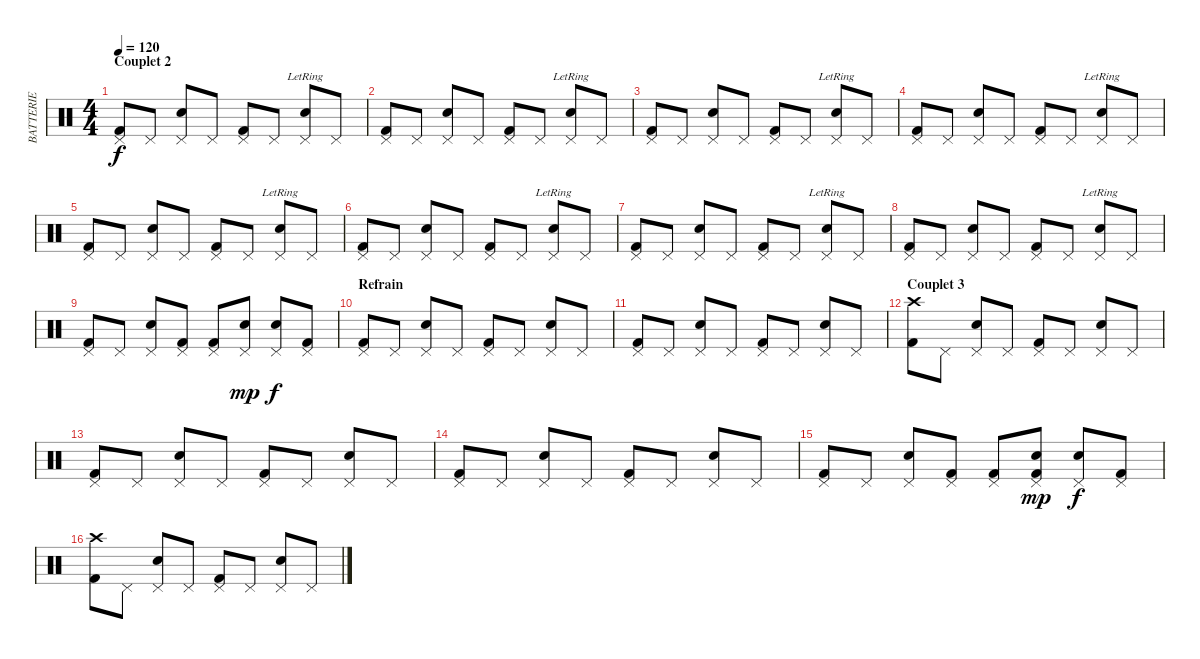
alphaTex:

\track ("BATTERIE" "BATTERIE") {instrument percussion}
\staff {score}
\articulation defaults
\ts (4 4)
\section ("" "Couplet 2")
\tempo 120
\clef neutral
\ks c
("Pedal Hi-Hat (hit)" "Kick (hit) 2").8{dy f} "Pedal Hi-Hat (hit)".8 ("Pedal Hi-Hat (hit)" "Snare (hit) 2").8 "Pedal Hi-Hat (hit)".8 ("Pedal Hi-Hat (hit)" "Kick (hit) 2").8 "Pedal Hi-Hat (hit)".8 ("Pedal Hi-Hat (hit)" "Snare (hit) 2"{lr}).8 "Pedal Hi-Hat (hit)".8 |
("Pedal Hi-Hat (hit)" "Kick (hit) 2").8 "Pedal Hi-Hat (hit)".8 ("Pedal Hi-Hat (hit)" "Snare (hit) 2").8 "Pedal Hi-Hat (hit)".8 ("Pedal Hi-Hat (hit)" "Kick (hit) 2").8 "Pedal Hi-Hat (hit)".8 ("Pedal Hi-Hat (hit)" "Snare (hit) 2"{lr}).8 "Pedal Hi-Hat (hit)".8 |
("Pedal Hi-Hat (hit)" "Kick (hit) 2").8 "Pedal Hi-Hat (hit)".8 ("Pedal Hi-Hat (hit)" "Snare (hit) 2").8 "Pedal Hi-Hat (hit)".8 ("Pedal Hi-Hat (hit)" "Kick (hit) 2").8 "Pedal Hi-Hat (hit)".8 ("Pedal Hi-Hat (hit)" "Snare (hit) 2"{lr}).8 "Pedal Hi-Hat (hit)".8 |
("Pedal Hi-Hat (hit)" "Kick (hit) 2").8 "Pedal Hi-Hat (hit)".8 ("Pedal Hi-Hat (hit)" "Snare (hit) 2").8 "Pedal Hi-Hat (hit)".8 ("Pedal Hi-Hat (hit)" "Kick (hit) 2").8 "Pedal Hi-Hat (hit)".8 ("Pedal Hi-Hat (hit)" "Snare (hit) 2"{lr}).8 "Pedal Hi-Hat (hit)".8 |
("Pedal Hi-Hat (hit)" "Kick (hit) 2").8 "Pedal Hi-Hat (hit)".8 ("Pedal Hi-Hat (hit)" "Snare (hit) 2").8 "Pedal Hi-Hat (hit)".8 ("Pedal Hi-Hat (hit)" "Kick (hit) 2").8 "Pedal Hi-Hat (hit)".8 ("Pedal Hi-Hat (hit)" "Snare (hit) 2"{lr}).8 "Pedal Hi-Hat (hit)".8 |
("Pedal Hi-Hat (hit)" "Kick (hit) 2").8 "Pedal Hi-Hat (hit)".8 ("Pedal Hi-Hat (hit)" "Snare (hit) 2").8 "Pedal Hi-Hat (hit)".8 ("Pedal Hi-Hat (hit)" "Kick (hit) 2").8 "Pedal Hi-Hat (hit)".8 ("Pedal Hi-Hat (hit)" "Snare (hit) 2"{lr}).8 "Pedal Hi-Hat (hit)".8 |
("Pedal Hi-Hat (hit)" "Kick (hit) 2").8 "Pedal Hi-Hat (hit)".8 ("Pedal Hi-Hat (hit)" "Snare (hit) 2").8 "Pedal Hi-Hat (hit)".8 ("Pedal Hi-Hat (hit)" "Kick (hit) 2").8 "Pedal Hi-Hat (hit)".8 ("Pedal Hi-Hat (hit)" "Snare (hit) 2"{lr}).8 "Pedal Hi-Hat (hit)".8 |
("Pedal Hi-Hat (hit)" "Kick (hit) 2").8 "Pedal Hi-Hat (hit)".8 ("Pedal Hi-Hat (hit)" "Snare (hit) 2").8 "Pedal Hi-Hat (hit)".8 ("Pedal Hi-Hat (hit)" "Kick (hit) 2").8 "Pedal Hi-Hat (hit)".8 ("Pedal Hi-Hat (hit)" "Snare (hit) 2"{lr}).8 "Pedal Hi-Hat (hit)".8 |
("Pedal Hi-Hat (hit)" "Kick (hit) 2").8 "Pedal Hi-Hat (hit)".8 ("Pedal Hi-Hat (hit)" "Snare (hit) 2").8 ("Pedal Hi-Hat (hit)" "Kick (hit) 2").8 ("Pedal Hi-Hat (hit)" "Kick (hit) 2").8 ("Pedal Hi-Hat (hit)" "Snare (hit) 2").8{dy mp} ("Pedal Hi-Hat (hit)" "Snare (hit) 2").8{dy f} ("Pedal Hi-Hat (hit)" "Kick (hit) 2").8 |
\section ("" "Refrain")
("Pedal Hi-Hat (hit)" "Kick (hit) 2").8 "Pedal Hi-Hat (hit)".8 ("Pedal Hi-Hat (hit)" "Snare (hit) 2").8 "Pedal Hi-Hat (hit)".8 ("Pedal Hi-Hat (hit)" "Kick (hit) 2").8 "Pedal Hi-Hat (hit)".8 ("Pedal Hi-Hat (hit)" "Snare (hit) 2").8 "Pedal Hi-Hat (hit)".8 |
("Pedal Hi-Hat (hit)" "Kick (hit) 2").8 "Pedal Hi-Hat (hit)".8 ("Pedal Hi-Hat (hit)" "Snare (hit) 2").8 "Pedal Hi-Hat (hit)".8 ("Pedal Hi-Hat (hit)" "Kick (hit) 2").8 "Pedal Hi-Hat (hit)".8 ("Pedal Hi-Hat (hit)" "Snare (hit) 2").8 "Pedal Hi-Hat (hit)".8 |
\section ("" "Couplet 3")
("Crash high (hit)" "Kick (hit) 2").8 "Pedal Hi-Hat (hit)".8 ("Pedal Hi-Hat (hit)" "Snare (hit) 2").8 "Pedal Hi-Hat (hit)".8 ("Pedal Hi-Hat (hit)" "Kick (hit) 2").8 "Pedal Hi-Hat (hit)".8 ("Pedal Hi-Hat (hit)" "Snare (hit) 2").8 "Pedal Hi-Hat (hit)".8 |
("Pedal Hi-Hat (hit)" "Kick (hit) 2").8 "Pedal Hi-Hat (hit)".8 ("Pedal Hi-Hat (hit)" "Snare (hit) 2").8 "Pedal Hi-Hat (hit)".8 ("Pedal Hi-Hat (hit)" "Kick (hit) 2").8 "Pedal Hi-Hat (hit)".8 ("Pedal Hi-Hat (hit)" "Snare (hit) 2").8 "Pedal Hi-Hat (hit)".8 |
("Pedal Hi-Hat (hit)" "Kick (hit) 2").8 "Pedal Hi-Hat (hit)".8 ("Pedal Hi-Hat (hit)" "Snare (hit) 2").8 "Pedal Hi-Hat (hit)".8 ("Pedal Hi-Hat (hit)" "Kick (hit) 2").8 "Pedal Hi-Hat (hit)".8 ("Pedal Hi-Hat (hit)" "Snare (hit) 2").8 "Pedal Hi-Hat (hit)".8 |
("Pedal Hi-Hat (hit)" "Kick (hit) 2").8 "Pedal Hi-Hat (hit)".8 ("Pedal Hi-Hat (hit)" "Snare (hit) 2").8 ("Pedal Hi-Hat (hit)" "Kick (hit) 2").8 ("Pedal Hi-Hat (hit)" "Kick (hit) 2").8 ("Pedal Hi-Hat (hit)" "Snare (hit) 2" "Kick (hit) 2").8{dy mp} ("Pedal Hi-Hat (hit)" "Snare (hit) 2").8{dy f} ("Pedal Hi-Hat (hit)" "Kick (hit) 2").8 |
("Crash high (hit)" "Kick (hit) 2").8 "Pedal Hi-Hat (hit)".8 ("Pedal Hi-Hat (hit)" "Snare (hit) 2").8 "Pedal Hi-Hat (hit)".8 ("Pedal Hi-Hat (hit)" "Kick (hit) 2").8 "Pedal Hi-Hat (hit)".8 ("Pedal Hi-Hat (hit)" "Snare (hit) 2").8 "Pedal Hi-Hat (hit)".8
